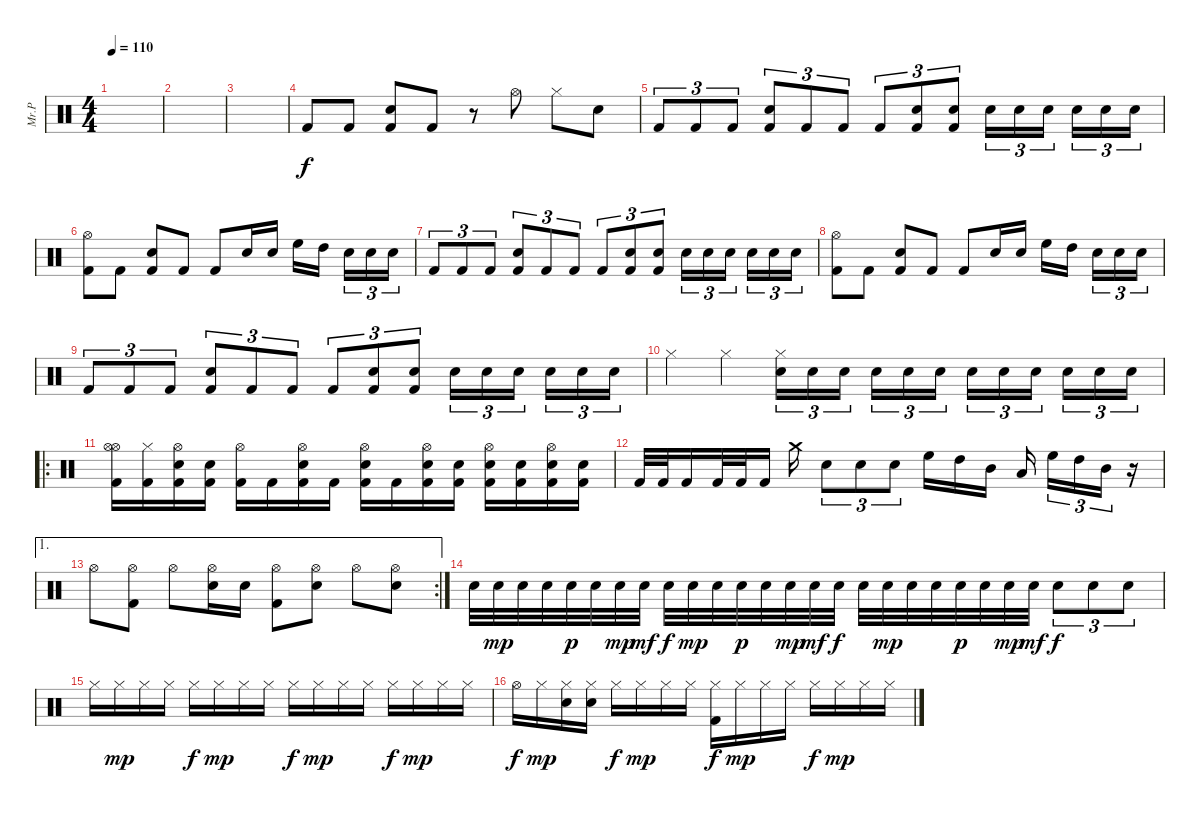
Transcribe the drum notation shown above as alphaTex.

\track ("Mr.P" "Mr.P") {instrument percussion}
\staff {score}
\articulation defaults
\ts (4 4)
\tempo 110
\clef neutral
\ks c
|
|
|
"Kick (hit) 2".8 "Kick (hit) 2".8 ("Electric Snare (hit)" "Kick (hit) 2").8 "Kick (hit) 2".8 r.8 "Hi-Hat (open)".8 "Hi-Hat (closed)".8 "Electric Snare (hit)".8 |
"Kick (hit) 2".8{tu (3 2)} "Kick (hit) 2".8{tu (3 2)} "Kick (hit) 2".8{tu (3 2)} ("Electric Snare (hit)" "Kick (hit) 2").8{tu (3 2)} "Kick (hit) 2".8{tu (3 2)} "Kick (hit) 2".8{tu (3 2)} "Kick (hit) 2".8{tu (3 2)} ("Electric Snare (hit)" "Kick (hit) 2").8{tu (3 2)} ("Electric Snare (hit)" "Kick (hit) 2").8{tu (3 2)} "Electric Snare (hit)".16{tu (3 2)} "Electric Snare (hit)".16{tu (3 2)} "Electric Snare (hit)".16{tu (3 2)} "Electric Snare (hit)".16{tu (3 2)} "Electric Snare (hit)".16{tu (3 2)} "Electric Snare (hit)".16{tu (3 2)} |
("Hi-Hat (open)" "Kick (hit) 2").8 "Kick (hit) 2".8 ("Electric Snare (hit)" "Kick (hit) 2").8 "Kick (hit) 2".8 "Kick (hit) 2".8 "Electric Snare (hit)".16 "Electric Snare (hit)".16 "High Floor Tom (hit)".16 "High Tom (hit)".16 "Electric Snare (hit)".16{tu (3 2)} "Electric Snare (hit)".16{tu (3 2)} "Electric Snare (hit)".16{tu (3 2)} |
"Kick (hit) 2".8{tu (3 2)} "Kick (hit) 2".8{tu (3 2)} "Kick (hit) 2".8{tu (3 2)} ("Electric Snare (hit)" "Kick (hit) 2").8{tu (3 2)} "Kick (hit) 2".8{tu (3 2)} "Kick (hit) 2".8{tu (3 2)} "Kick (hit) 2".8{tu (3 2)} ("Electric Snare (hit)" "Kick (hit) 2").8{tu (3 2)} ("Electric Snare (hit)" "Kick (hit) 2").8{tu (3 2)} "Electric Snare (hit)".16{tu (3 2)} "Electric Snare (hit)".16{tu (3 2)} "Electric Snare (hit)".16{tu (3 2)} "Electric Snare (hit)".16{tu (3 2)} "Electric Snare (hit)".16{tu (3 2)} "Electric Snare (hit)".16{tu (3 2)} |
("Hi-Hat (open)" "Kick (hit) 2").8 "Kick (hit) 2".8 ("Electric Snare (hit)" "Kick (hit) 2").8 "Kick (hit) 2".8 "Kick (hit) 2".8 "Electric Snare (hit)".16 "Electric Snare (hit)".16 "High Floor Tom (hit)".16 "High Tom (hit)".16 "Electric Snare (hit)".16{tu (3 2)} "Electric Snare (hit)".16{tu (3 2)} "Electric Snare (hit)".16{tu (3 2)} |
"Kick (hit) 2".8{tu (3 2)} "Kick (hit) 2".8{tu (3 2)} "Kick (hit) 2".8{tu (3 2)} ("Electric Snare (hit)" "Kick (hit) 2").8{tu (3 2)} "Kick (hit) 2".8{tu (3 2)} "Kick (hit) 2".8{tu (3 2)} "Kick (hit) 2".8{tu (3 2)} ("Electric Snare (hit)" "Kick (hit) 2").8{tu (3 2)} ("Electric Snare (hit)" "Kick (hit) 2").8{tu (3 2)} "Electric Snare (hit)".16{tu (3 2)} "Electric Snare (hit)".16{tu (3 2)} "Electric Snare (hit)".16{tu (3 2)} "Electric Snare (hit)".16{tu (3 2)} "Electric Snare (hit)".16{tu (3 2)} "Electric Snare (hit)".16{tu (3 2)} |
"Hi-Hat (closed)".4 "Hi-Hat (closed)".4 ("Hi-Hat (closed)" "Electric Snare (hit)").16{tu (3 2)} "Electric Snare (hit)".16{tu (3 2)} "Electric Snare (hit)".16{tu (3 2)} "Electric Snare (hit)".16{tu (3 2)} "Electric Snare (hit)".16{tu (3 2)} "Electric Snare (hit)".16{tu (3 2)} "Electric Snare (hit)".16{tu (3 2)} "Electric Snare (hit)".16{tu (3 2)} "Electric Snare (hit)".16{tu (3 2)} "Electric Snare (hit)".16{tu (3 2)} "Electric Snare (hit)".16{tu (3 2)} "Electric Snare (hit)".16{tu (3 2)} |
\ro
("Hi-Hat (open)" "Hi-Hat (open)" "Kick (hit) 2").16 ("Hi-Hat (closed)" "Kick (hit) 2").16 ("Hi-Hat (open)" "Electric Snare (hit)" "Kick (hit) 2").16 ("Electric Snare (hit)" "Kick (hit) 2").16 ("Hi-Hat (open)" "Kick (hit) 2").16 "Kick (hit) 2".16 ("Hi-Hat (open)" "Electric Snare (hit)" "Kick (hit) 2").16 "Kick (hit) 2".16 ("Hi-Hat (open)" "Electric Snare (hit)" "Kick (hit) 2").16 "Kick (hit) 2".16 ("Hi-Hat (open)" "Electric Snare (hit)" "Kick (hit) 2").16 ("Electric Snare (hit)" "Kick (hit) 2").16 ("Hi-Hat (open)" "Electric Snare (hit)" "Kick (hit) 2").16 ("Electric Snare (hit)" "Kick (hit) 2").16 ("Hi-Hat (open)" "Electric Snare (hit)" "Kick (hit) 2").16 ("Electric Snare (hit)" "Kick (hit) 2").16 |
"Kick (hit) 2".32 "Kick (hit) 2".32 "Kick (hit) 2".16 "Kick (hit) 2".32 "Kick (hit) 2".32 "Kick (hit) 2".16 "Crash medium (hit)".16 "Electric Snare (hit)".8{tu (3 2)} "Electric Snare (hit)".8{tu (3 2)} "Electric Snare (hit)".8{tu (3 2)} "High Floor Tom (hit)".16 "High Tom (hit)".16 "Mid Tom (hit)".16 "Low Tom (hit)".16 "High Floor Tom (hit)".16{tu (3 2)} "High Tom (hit)".16{tu (3 2)} "Mid Tom (hit)".16{tu (3 2)} r.16 |
\ae 1
\rc 2 "Hi-Hat (open)".8
("Hi-Hat (open)" "Kick (hit) 2").8 "Hi-Hat (open)".8 ("Hi-Hat (open)" "Electric Snare (hit)").16 "Electric Snare (hit)".16 ("Hi-Hat (open)" "Kick (hit) 2").8 ("Hi-Hat (open)" "Electric Snare (hit)").8 "Hi-Hat (open)".8 ("Hi-Hat (open)" "Electric Snare (hit)").8 |
"Snare (hit) 2".32 "Snare (hit) 2".32{dy mp} "Snare (hit) 2".32 "Snare (hit) 2".32 "Snare (hit) 2".32{dy p} "Snare (hit) 2".32 "Snare (hit) 2".32{dy mp} "Snare (hit) 2".32{dy mf} "Snare (hit) 2".32{dy f} "Snare (hit) 2".32{dy mp} "Snare (hit) 2".32 "Snare (hit) 2".32{dy p} "Snare (hit) 2".32 "Snare (hit) 2".32{dy mp} "Snare (hit) 2".32{dy mf} "Snare (hit) 2".32{dy f} "Snare (hit) 2".32 "Snare (hit) 2".32{dy mp} "Snare (hit) 2".32 "Snare (hit) 2".32 "Snare (hit) 2".32{dy p} "Snare (hit) 2".32 "Snare (hit) 2".32{dy mp} "Snare (hit) 2".32{dy mf} "Electric Snare (hit)".8{tu (3 2) dy f} "Electric Snare (hit)".8{tu (3 2)} "Electric Snare (hit)".8{tu (3 2)} |
"Hi-Hat (closed)".16 "Hi-Hat (closed)".16{dy mp} "Hi-Hat (closed)".16 "Hi-Hat (closed)".16 "Hi-Hat (closed)".16{dy f} "Hi-Hat (closed)".16{dy mp} "Hi-Hat (closed)".16 "Hi-Hat (closed)".16 "Hi-Hat (closed)".16{dy f} "Hi-Hat (closed)".16{dy mp} "Hi-Hat (closed)".16 "Hi-Hat (closed)".16 "Hi-Hat (closed)".16{dy f} "Hi-Hat (closed)".16{dy mp} "Hi-Hat (closed)".16 "Hi-Hat (closed)".16 |
"Hi-Hat (open)".16{dy f} "Hi-Hat (closed)".16{dy mp} ("Hi-Hat (closed)" "Electric Snare (hit)").16 ("Hi-Hat (closed)" "Electric Snare (hit)").16 "Hi-Hat (closed)".16{dy f} "Hi-Hat (closed)".16{dy mp} "Hi-Hat (closed)".16 "Hi-Hat (closed)".16 ("Hi-Hat (closed)" "Kick (hit) 2").16{dy f} "Hi-Hat (closed)".16{dy mp} "Hi-Hat (closed)".16 "Hi-Hat (closed)".16 "Hi-Hat (closed)".16{dy f} "Hi-Hat (closed)".16{dy mp} "Hi-Hat (closed)".16 "Hi-Hat (closed)".16
